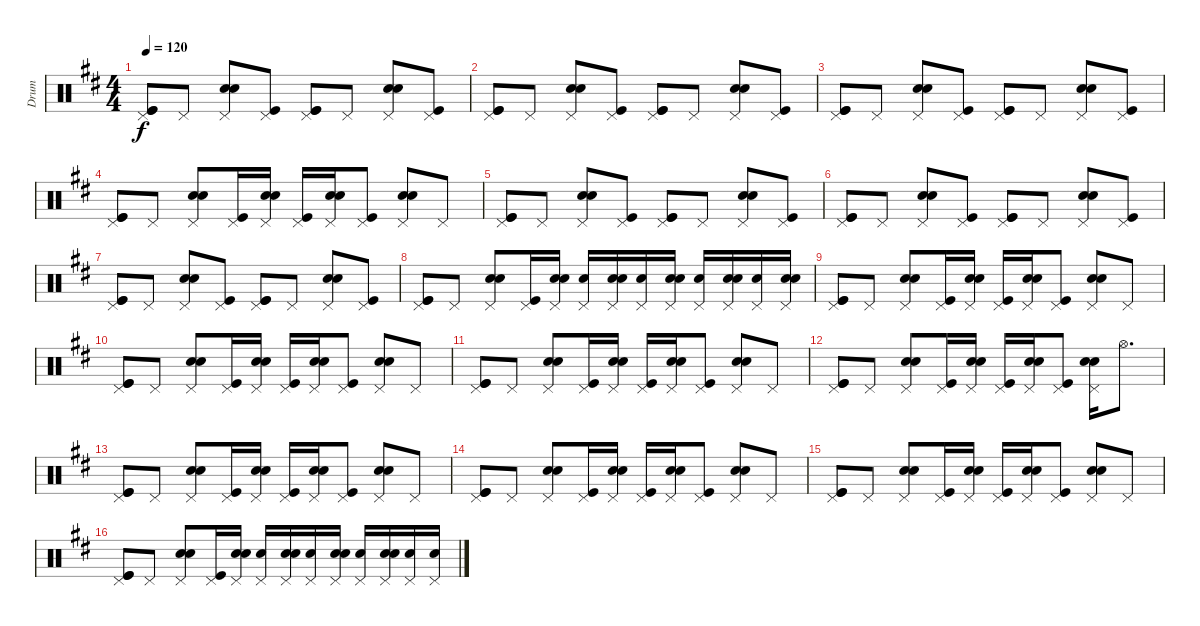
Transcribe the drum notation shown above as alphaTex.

\track ("Drum" "Drum") {instrument percussion}
\staff {score}
\articulation defaults
\ts (4 4)
\tempo 120
\clef neutral
\ks d
("Pedal Hi-Hat (hit)" "Kick (hit)" "Kick (hit)").8{dy f} "Pedal Hi-Hat (hit)".8 ("Pedal Hi-Hat (hit)" "Electric Snare (hit)" "Electric Snare (hit)").8 ("Pedal Hi-Hat (hit)" "Kick (hit)").8 ("Pedal Hi-Hat (hit)" "Kick (hit)" "Kick (hit)").8 "Pedal Hi-Hat (hit)".8 ("Pedal Hi-Hat (hit)" "Electric Snare (hit)" "Electric Snare (hit)").8 ("Pedal Hi-Hat (hit)" "Kick (hit)").8 |
("Pedal Hi-Hat (hit)" "Kick (hit)" "Kick (hit)").8 "Pedal Hi-Hat (hit)".8 ("Pedal Hi-Hat (hit)" "Electric Snare (hit)" "Electric Snare (hit)").8 ("Pedal Hi-Hat (hit)" "Kick (hit)").8 ("Pedal Hi-Hat (hit)" "Kick (hit)" "Kick (hit)").8 "Pedal Hi-Hat (hit)".8 ("Pedal Hi-Hat (hit)" "Electric Snare (hit)" "Electric Snare (hit)").8 ("Pedal Hi-Hat (hit)" "Kick (hit)").8 |
("Pedal Hi-Hat (hit)" "Kick (hit)" "Kick (hit)").8 "Pedal Hi-Hat (hit)".8 ("Pedal Hi-Hat (hit)" "Electric Snare (hit)" "Electric Snare (hit)").8 ("Pedal Hi-Hat (hit)" "Kick (hit)").8 ("Pedal Hi-Hat (hit)" "Kick (hit)" "Kick (hit)").8 "Pedal Hi-Hat (hit)".8 ("Pedal Hi-Hat (hit)" "Electric Snare (hit)" "Electric Snare (hit)").8 ("Pedal Hi-Hat (hit)" "Kick (hit)").8 |
("Pedal Hi-Hat (hit)" "Kick (hit)" "Kick (hit)").8 "Pedal Hi-Hat (hit)".8 ("Pedal Hi-Hat (hit)" "Electric Snare (hit)" "Electric Snare (hit)").8 ("Pedal Hi-Hat (hit)" "Kick (hit)").16 ("Pedal Hi-Hat (hit)" "Electric Snare (hit)" "Electric Snare (hit)").16 ("Pedal Hi-Hat (hit)" "Kick (hit)").16 ("Pedal Hi-Hat (hit)" "Electric Snare (hit)" "Electric Snare (hit)").16 ("Pedal Hi-Hat (hit)" "Kick (hit)").8 ("Pedal Hi-Hat (hit)" "Electric Snare (hit)" "Electric Snare (hit)").8 "Pedal Hi-Hat (hit)".8 |
("Pedal Hi-Hat (hit)" "Kick (hit)" "Kick (hit)").8 "Pedal Hi-Hat (hit)".8 ("Pedal Hi-Hat (hit)" "Electric Snare (hit)" "Electric Snare (hit)").8 ("Pedal Hi-Hat (hit)" "Kick (hit)").8 ("Pedal Hi-Hat (hit)" "Kick (hit)" "Kick (hit)").8 "Pedal Hi-Hat (hit)".8 ("Pedal Hi-Hat (hit)" "Electric Snare (hit)" "Electric Snare (hit)").8 ("Pedal Hi-Hat (hit)" "Kick (hit)").8 |
("Pedal Hi-Hat (hit)" "Kick (hit)" "Kick (hit)").8 "Pedal Hi-Hat (hit)".8 ("Pedal Hi-Hat (hit)" "Electric Snare (hit)" "Electric Snare (hit)").8 ("Pedal Hi-Hat (hit)" "Kick (hit)").8 ("Pedal Hi-Hat (hit)" "Kick (hit)" "Kick (hit)").8 "Pedal Hi-Hat (hit)".8 ("Pedal Hi-Hat (hit)" "Electric Snare (hit)" "Electric Snare (hit)").8 ("Pedal Hi-Hat (hit)" "Kick (hit)").8 |
("Pedal Hi-Hat (hit)" "Kick (hit)" "Kick (hit)").8 "Pedal Hi-Hat (hit)".8 ("Pedal Hi-Hat (hit)" "Electric Snare (hit)" "Electric Snare (hit)").8 ("Pedal Hi-Hat (hit)" "Kick (hit)").8 ("Pedal Hi-Hat (hit)" "Kick (hit)" "Kick (hit)").8 "Pedal Hi-Hat (hit)".8 ("Pedal Hi-Hat (hit)" "Electric Snare (hit)" "Electric Snare (hit)").8 ("Pedal Hi-Hat (hit)" "Kick (hit)").8 |
("Pedal Hi-Hat (hit)" "Kick (hit)" "Kick (hit)").8 "Pedal Hi-Hat (hit)".8 ("Pedal Hi-Hat (hit)" "Electric Snare (hit)" "Electric Snare (hit)").8 ("Pedal Hi-Hat (hit)" "Kick (hit)").16 ("Pedal Hi-Hat (hit)" "Electric Snare (hit)" "Electric Snare (hit)").16 ("Pedal Hi-Hat (hit)" "Electric Snare (hit)").16 ("Pedal Hi-Hat (hit)" "Electric Snare (hit)" "Electric Snare (hit)").16 ("Pedal Hi-Hat (hit)" "Electric Snare (hit)").16 ("Pedal Hi-Hat (hit)" "Electric Snare (hit)" "Electric Snare (hit)").16 ("Pedal Hi-Hat (hit)" "Electric Snare (hit)").16 ("Pedal Hi-Hat (hit)" "Electric Snare (hit)" "Electric Snare (hit)").16 ("Pedal Hi-Hat (hit)" "Electric Snare (hit)").16 ("Pedal Hi-Hat (hit)" "Electric Snare (hit)" "Electric Snare (hit)").16 |
("Pedal Hi-Hat (hit)" "Kick (hit)" "Kick (hit)").8 "Pedal Hi-Hat (hit)".8 ("Pedal Hi-Hat (hit)" "Electric Snare (hit)" "Electric Snare (hit)").8 ("Pedal Hi-Hat (hit)" "Kick (hit)").16 ("Pedal Hi-Hat (hit)" "Electric Snare (hit)" "Electric Snare (hit)").16 ("Pedal Hi-Hat (hit)" "Kick (hit)").16 ("Pedal Hi-Hat (hit)" "Electric Snare (hit)" "Electric Snare (hit)").16 ("Pedal Hi-Hat (hit)" "Kick (hit)").8 ("Pedal Hi-Hat (hit)" "Electric Snare (hit)" "Electric Snare (hit)").8 "Pedal Hi-Hat (hit)".8 |
("Pedal Hi-Hat (hit)" "Kick (hit)" "Kick (hit)").8 "Pedal Hi-Hat (hit)".8 ("Pedal Hi-Hat (hit)" "Electric Snare (hit)" "Electric Snare (hit)").8 ("Pedal Hi-Hat (hit)" "Kick (hit)").16 ("Pedal Hi-Hat (hit)" "Electric Snare (hit)" "Electric Snare (hit)").16 ("Pedal Hi-Hat (hit)" "Kick (hit)").16 ("Pedal Hi-Hat (hit)" "Electric Snare (hit)" "Electric Snare (hit)").16 ("Pedal Hi-Hat (hit)" "Kick (hit)").8 ("Pedal Hi-Hat (hit)" "Electric Snare (hit)" "Electric Snare (hit)").8 "Pedal Hi-Hat (hit)".8 |
("Pedal Hi-Hat (hit)" "Kick (hit)" "Kick (hit)").8 "Pedal Hi-Hat (hit)".8 ("Pedal Hi-Hat (hit)" "Electric Snare (hit)" "Electric Snare (hit)").8 ("Pedal Hi-Hat (hit)" "Kick (hit)").16 ("Pedal Hi-Hat (hit)" "Electric Snare (hit)" "Electric Snare (hit)").16 ("Pedal Hi-Hat (hit)" "Kick (hit)").16 ("Pedal Hi-Hat (hit)" "Electric Snare (hit)" "Electric Snare (hit)").16 ("Pedal Hi-Hat (hit)" "Kick (hit)").8 ("Pedal Hi-Hat (hit)" "Electric Snare (hit)" "Electric Snare (hit)").8 "Pedal Hi-Hat (hit)".8 |
("Pedal Hi-Hat (hit)" "Kick (hit)" "Kick (hit)").8 "Pedal Hi-Hat (hit)".8 ("Pedal Hi-Hat (hit)" "Electric Snare (hit)" "Electric Snare (hit)").8 ("Pedal Hi-Hat (hit)" "Kick (hit)").16 ("Pedal Hi-Hat (hit)" "Electric Snare (hit)" "Electric Snare (hit)").16 ("Pedal Hi-Hat (hit)" "Kick (hit)").16 ("Pedal Hi-Hat (hit)" "Electric Snare (hit)" "Electric Snare (hit)").16 ("Pedal Hi-Hat (hit)" "Kick (hit)").8 ("Pedal Hi-Hat (hit)" "Electric Snare (hit)" "Electric Snare (hit)").16 "Hi-Hat (open)".8{d} |
("Pedal Hi-Hat (hit)" "Kick (hit)" "Kick (hit)").8 "Pedal Hi-Hat (hit)".8 ("Pedal Hi-Hat (hit)" "Electric Snare (hit)" "Electric Snare (hit)").8 ("Pedal Hi-Hat (hit)" "Kick (hit)").16 ("Pedal Hi-Hat (hit)" "Electric Snare (hit)" "Electric Snare (hit)").16 ("Pedal Hi-Hat (hit)" "Kick (hit)").16 ("Pedal Hi-Hat (hit)" "Electric Snare (hit)" "Electric Snare (hit)").16 ("Pedal Hi-Hat (hit)" "Kick (hit)").8 ("Pedal Hi-Hat (hit)" "Electric Snare (hit)" "Electric Snare (hit)").8 "Pedal Hi-Hat (hit)".8 |
("Pedal Hi-Hat (hit)" "Kick (hit)" "Kick (hit)").8 "Pedal Hi-Hat (hit)".8 ("Pedal Hi-Hat (hit)" "Electric Snare (hit)" "Electric Snare (hit)").8 ("Pedal Hi-Hat (hit)" "Kick (hit)").16 ("Pedal Hi-Hat (hit)" "Electric Snare (hit)" "Electric Snare (hit)").16 ("Pedal Hi-Hat (hit)" "Kick (hit)").16 ("Pedal Hi-Hat (hit)" "Electric Snare (hit)" "Electric Snare (hit)").16 ("Pedal Hi-Hat (hit)" "Kick (hit)").8 ("Pedal Hi-Hat (hit)" "Electric Snare (hit)" "Electric Snare (hit)").8 "Pedal Hi-Hat (hit)".8 |
("Pedal Hi-Hat (hit)" "Kick (hit)" "Kick (hit)").8 "Pedal Hi-Hat (hit)".8 ("Pedal Hi-Hat (hit)" "Electric Snare (hit)" "Electric Snare (hit)").8 ("Pedal Hi-Hat (hit)" "Kick (hit)").16 ("Pedal Hi-Hat (hit)" "Electric Snare (hit)" "Electric Snare (hit)").16 ("Pedal Hi-Hat (hit)" "Kick (hit)").16 ("Pedal Hi-Hat (hit)" "Electric Snare (hit)" "Electric Snare (hit)").16 ("Pedal Hi-Hat (hit)" "Kick (hit)").8 ("Pedal Hi-Hat (hit)" "Electric Snare (hit)" "Electric Snare (hit)").8 "Pedal Hi-Hat (hit)".8 |
("Pedal Hi-Hat (hit)" "Kick (hit)" "Kick (hit)").8 "Pedal Hi-Hat (hit)".8 ("Pedal Hi-Hat (hit)" "Electric Snare (hit)" "Electric Snare (hit)").8 ("Pedal Hi-Hat (hit)" "Kick (hit)").16 ("Pedal Hi-Hat (hit)" "Electric Snare (hit)" "Electric Snare (hit)").16 ("Pedal Hi-Hat (hit)" "Electric Snare (hit)").16 ("Pedal Hi-Hat (hit)" "Electric Snare (hit)" "Electric Snare (hit)").16 ("Pedal Hi-Hat (hit)" "Electric Snare (hit)").16 ("Pedal Hi-Hat (hit)" "Electric Snare (hit)" "Electric Snare (hit)").16 ("Pedal Hi-Hat (hit)" "Electric Snare (hit)").16 ("Pedal Hi-Hat (hit)" "Electric Snare (hit)" "Electric Snare (hit)").16 ("Pedal Hi-Hat (hit)" "Electric Snare (hit)").16 ("Pedal Hi-Hat (hit)" "Electric Snare (hit)").16
